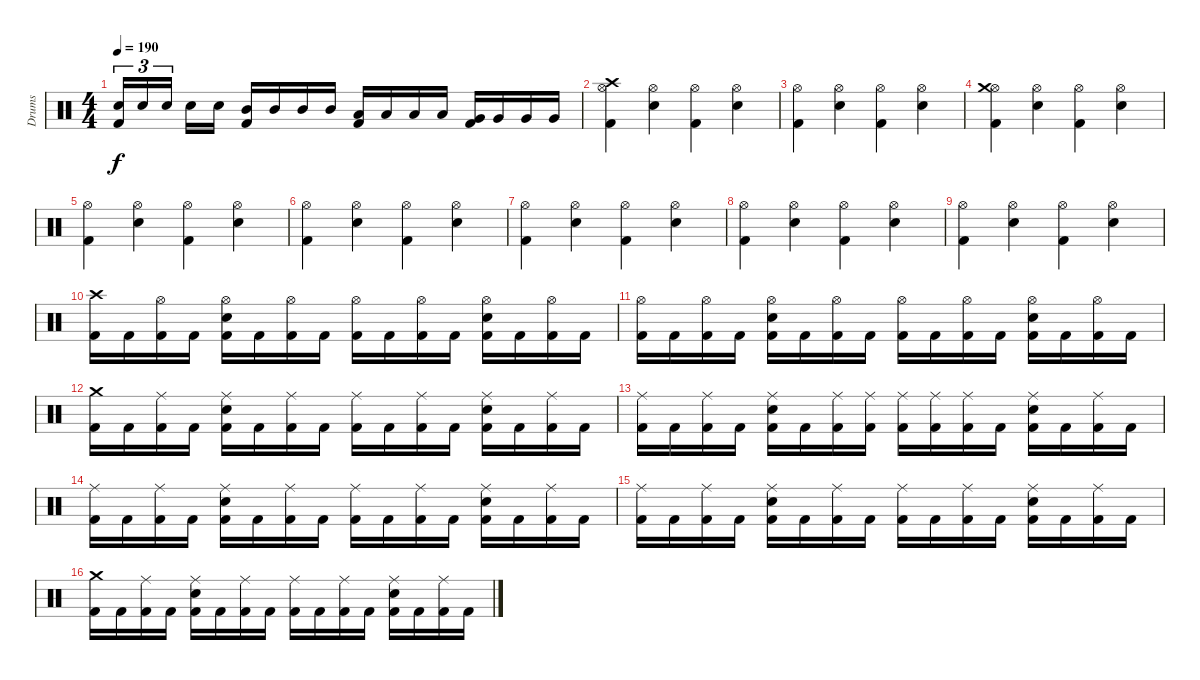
\track ("Drums" "Drums") {instrument percussion}
\staff {score}
\articulation defaults
\ts (4 4)
\tempo 190
\clef neutral
\ks c
("Kick (hit) 2" "Snare (hit) 2").16{tu (3 2) dy f} "Snare (hit) 2".16{tu (3 2)} "Snare (hit) 2".16{tu (3 2)} "Snare (hit) 2".16 "Snare (hit) 2".16 ("Kick (hit) 2" "Mid Tom (hit)").16 "Mid Tom (hit)".16 "Mid Tom (hit)".16 "Mid Tom (hit)".16 ("Kick (hit) 2" "Low Tom (hit)").16 "Low Tom (hit)".16 "Low Tom (hit)".16 "Low Tom (hit)".16 ("Kick (hit) 2" "Very Low Tom (hit)").16 "Very Low Tom (hit)".16 "Very Low Tom (hit)".16 "Very Low Tom (hit)".16 |
("Kick (hit) 2" "Hi-Hat (open)" "Crash high (hit)").4 ("Electric Snare (hit)" "Hi-Hat (open)").4 ("Kick (hit) 2" "Hi-Hat (open)").4 ("Electric Snare (hit)" "Hi-Hat (open)").4 |
("Kick (hit) 2" "Hi-Hat (open)").4 ("Electric Snare (hit)" "Hi-Hat (open)").4 ("Kick (hit) 2" "Hi-Hat (open)").4 ("Electric Snare (hit)" "Hi-Hat (open)").4 |
("Kick (hit) 2" "Hi-Hat (open)" "Crash medium (hit)").4 ("Electric Snare (hit)" "Hi-Hat (open)").4 ("Kick (hit) 2" "Hi-Hat (open)").4 ("Electric Snare (hit)" "Hi-Hat (open)").4 |
("Kick (hit) 2" "Hi-Hat (open)").4 ("Electric Snare (hit)" "Hi-Hat (open)").4 ("Kick (hit) 2" "Hi-Hat (open)").4 ("Electric Snare (hit)" "Hi-Hat (open)").4 |
("Kick (hit) 2" "Hi-Hat (open)").4 ("Electric Snare (hit)" "Hi-Hat (open)").4 ("Kick (hit) 2" "Hi-Hat (open)").4 ("Electric Snare (hit)" "Hi-Hat (open)").4 |
("Kick (hit) 2" "Hi-Hat (open)").4 ("Electric Snare (hit)" "Hi-Hat (open)").4 ("Kick (hit) 2" "Hi-Hat (open)").4 ("Electric Snare (hit)" "Hi-Hat (open)").4 |
("Kick (hit) 2" "Hi-Hat (open)").4 ("Electric Snare (hit)" "Hi-Hat (open)").4 ("Kick (hit) 2" "Hi-Hat (open)").4 ("Electric Snare (hit)" "Hi-Hat (open)").4 |
("Kick (hit) 2" "Hi-Hat (open)").4 ("Electric Snare (hit)" "Hi-Hat (open)").4 ("Kick (hit) 2" "Hi-Hat (open)").4 ("Electric Snare (hit)" "Hi-Hat (open)").4 |
("Kick (hit) 2" "Crash high (hit)").16 "Kick (hit) 2".16 ("Kick (hit) 2" "Hi-Hat (open)").16 "Kick (hit) 2".16 ("Kick (hit) 2" "Electric Snare (hit)" "Hi-Hat (open)").16 "Kick (hit) 2".16 ("Kick (hit) 2" "Hi-Hat (open)").16 "Kick (hit) 2".16 ("Kick (hit) 2" "Hi-Hat (open)").16 "Kick (hit) 2".16 ("Kick (hit) 2" "Hi-Hat (open)").16 "Kick (hit) 2".16 ("Kick (hit) 2" "Electric Snare (hit)" "Hi-Hat (open)").16 "Kick (hit) 2".16 ("Kick (hit) 2" "Hi-Hat (open)").16 "Kick (hit) 2".16 |
("Kick (hit) 2" "Hi-Hat (open)").16 "Kick (hit) 2".16 ("Kick (hit) 2" "Hi-Hat (open)").16 "Kick (hit) 2".16 ("Kick (hit) 2" "Electric Snare (hit)" "Hi-Hat (open)").16 "Kick (hit) 2".16 ("Kick (hit) 2" "Hi-Hat (open)").16 "Kick (hit) 2".16 ("Kick (hit) 2" "Hi-Hat (open)").16 "Kick (hit) 2".16 ("Kick (hit) 2" "Hi-Hat (open)").16 "Kick (hit) 2".16 ("Kick (hit) 2" "Electric Snare (hit)" "Hi-Hat (open)").16 "Kick (hit) 2".16 ("Kick (hit) 2" "Hi-Hat (open)").16 "Kick (hit) 2".16 |
("Kick (hit) 2" "Crash medium (hit)").16 "Kick (hit) 2".16 ("Kick (hit) 2" "Ride (middle)").16 "Kick (hit) 2".16 ("Kick (hit) 2" "Electric Snare (hit)" "Ride (middle)").16 "Kick (hit) 2".16 ("Kick (hit) 2" "Ride (middle)").16 "Kick (hit) 2".16 ("Kick (hit) 2" "Ride (middle)").16 "Kick (hit) 2".16 ("Kick (hit) 2" "Ride (middle)").16 "Kick (hit) 2".16 ("Kick (hit) 2" "Electric Snare (hit)" "Ride (middle)").16 "Kick (hit) 2".16 ("Kick (hit) 2" "Ride (middle)").16 "Kick (hit) 2".16 |
("Kick (hit) 2" "Ride (middle)").16 "Kick (hit) 2".16 ("Kick (hit) 2" "Ride (middle)").16 "Kick (hit) 2".16 ("Kick (hit) 2" "Electric Snare (hit)" "Ride (middle)").16 "Kick (hit) 2".16 ("Kick (hit) 2" "Ride (middle)").16 ("Kick (hit) 2" "Ride (middle)").16 ("Kick (hit) 2" "Ride (middle)").16 ("Kick (hit) 2" "Ride (middle)").16 ("Kick (hit) 2" "Ride (middle)").16 "Kick (hit) 2".16 ("Kick (hit) 2" "Electric Snare (hit)" "Ride (middle)").16 "Kick (hit) 2".16 ("Kick (hit) 2" "Ride (middle)").16 "Kick (hit) 2".16 |
("Kick (hit) 2" "Ride (middle)").16 "Kick (hit) 2".16 ("Kick (hit) 2" "Ride (middle)").16 "Kick (hit) 2".16 ("Kick (hit) 2" "Electric Snare (hit)" "Ride (middle)").16 "Kick (hit) 2".16 ("Kick (hit) 2" "Ride (middle)").16 "Kick (hit) 2".16 ("Kick (hit) 2" "Ride (middle)").16 "Kick (hit) 2".16 ("Kick (hit) 2" "Ride (middle)").16 "Kick (hit) 2".16 ("Kick (hit) 2" "Electric Snare (hit)" "Ride (middle)").16 "Kick (hit) 2".16 ("Kick (hit) 2" "Ride (middle)").16 "Kick (hit) 2".16 |
("Kick (hit) 2" "Ride (middle)").16 "Kick (hit) 2".16 ("Kick (hit) 2" "Ride (middle)").16 "Kick (hit) 2".16 ("Kick (hit) 2" "Electric Snare (hit)" "Ride (middle)").16 "Kick (hit) 2".16 ("Kick (hit) 2" "Ride (middle)").16 "Kick (hit) 2".16 ("Kick (hit) 2" "Ride (middle)").16 "Kick (hit) 2".16 ("Kick (hit) 2" "Ride (middle)").16 "Kick (hit) 2".16 ("Kick (hit) 2" "Electric Snare (hit)" "Ride (middle)").16 "Kick (hit) 2".16 ("Kick (hit) 2" "Ride (middle)").16 "Kick (hit) 2".16 |
("Kick (hit) 2" "Crash medium (hit)").16 "Kick (hit) 2".16 ("Kick (hit) 2" "Ride (middle)").16 "Kick (hit) 2".16 ("Kick (hit) 2" "Electric Snare (hit)" "Ride (middle)").16 "Kick (hit) 2".16 ("Kick (hit) 2" "Ride (middle)").16 "Kick (hit) 2".16 ("Kick (hit) 2" "Ride (middle)").16 "Kick (hit) 2".16 ("Kick (hit) 2" "Ride (middle)").16 "Kick (hit) 2".16 ("Kick (hit) 2" "Electric Snare (hit)" "Ride (middle)").16 "Kick (hit) 2".16 ("Kick (hit) 2" "Ride (middle)").16 "Kick (hit) 2".16
